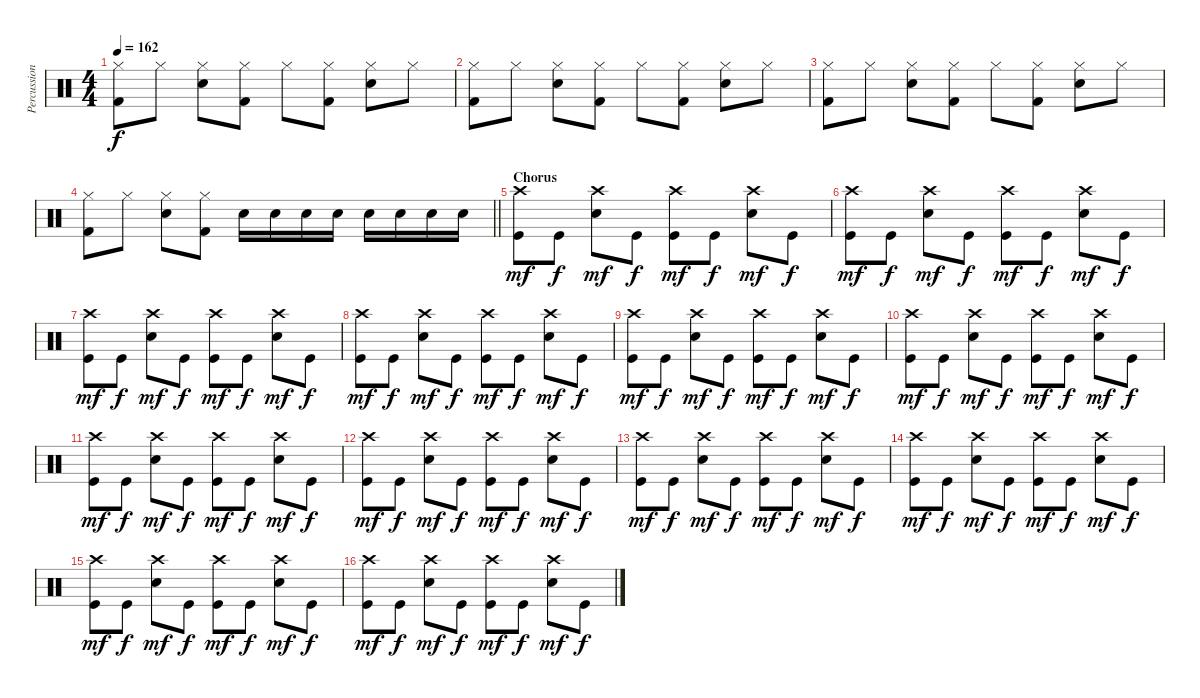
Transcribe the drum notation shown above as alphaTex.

\track ("Percussions" "Percussion") {instrument percussion}
\staff {score}
\articulation defaults
\ts (4 4)
\tempo 162
\clef neutral
\ks c
("Hi-Hat (closed)" "Kick (hit) 2").8{dy f} "Hi-Hat (closed)".8 ("Snare (hit) 2" "Hi-Hat (closed)").8 ("Hi-Hat (closed)" "Kick (hit) 2").8 "Hi-Hat (closed)".8 ("Hi-Hat (closed)" "Kick (hit) 2").8 ("Snare (hit) 2" "Hi-Hat (closed)").8 "Hi-Hat (closed)".8 |
("Hi-Hat (closed)" "Kick (hit) 2").8 "Hi-Hat (closed)".8 ("Snare (hit) 2" "Hi-Hat (closed)").8 ("Hi-Hat (closed)" "Kick (hit) 2").8 "Hi-Hat (closed)".8 ("Hi-Hat (closed)" "Kick (hit) 2").8 ("Snare (hit) 2" "Hi-Hat (closed)").8 "Hi-Hat (closed)".8 |
("Hi-Hat (closed)" "Kick (hit) 2").8 "Hi-Hat (closed)".8 ("Snare (hit) 2" "Hi-Hat (closed)").8 ("Hi-Hat (closed)" "Kick (hit) 2").8 "Hi-Hat (closed)".8 ("Hi-Hat (closed)" "Kick (hit) 2").8 ("Snare (hit) 2" "Hi-Hat (closed)").8 "Hi-Hat (closed)".8 |
\barLineRight lightlight
("Hi-Hat (closed)" "Kick (hit) 2").8 "Hi-Hat (closed)".8 ("Snare (hit) 2" "Hi-Hat (closed)").8 ("Hi-Hat (closed)" "Kick (hit) 2").8 "Electric Snare (hit)".16 "Electric Snare (hit)".16 "Electric Snare (hit)".16 "Electric Snare (hit)".16 "Snare (hit) 2".16 "Snare (hit) 2".16 "Snare (hit) 2".16 "Snare (hit) 2".16 |
\section ("" "Chorus")
("Crash high (hit)" "Kick (hit)").8{dy mf} "Kick (hit)".8{dy f} ("Crash high (hit)" "Electric Snare (hit)").8{dy mf} "Kick (hit)".8{dy f} ("Crash high (hit)" "Kick (hit)").8{dy mf} "Kick (hit)".8{dy f} ("Crash high (hit)" "Electric Snare (hit)").8{dy mf} "Kick (hit)".8{dy f} |
("Crash high (hit)" "Kick (hit)").8{dy mf} "Kick (hit)".8{dy f} ("Crash high (hit)" "Electric Snare (hit)").8{dy mf} "Kick (hit)".8{dy f} ("Crash high (hit)" "Kick (hit)").8{dy mf} "Kick (hit)".8{dy f} ("Crash high (hit)" "Electric Snare (hit)").8{dy mf} "Kick (hit)".8{dy f} |
("Crash high (hit)" "Kick (hit)").8{dy mf} "Kick (hit)".8{dy f} ("Crash high (hit)" "Electric Snare (hit)").8{dy mf} "Kick (hit)".8{dy f} ("Crash high (hit)" "Kick (hit)").8{dy mf} "Kick (hit)".8{dy f} ("Crash high (hit)" "Electric Snare (hit)").8{dy mf} "Kick (hit)".8{dy f} |
("Crash high (hit)" "Kick (hit)").8{dy mf} "Kick (hit)".8{dy f} ("Crash high (hit)" "Electric Snare (hit)").8{dy mf} "Kick (hit)".8{dy f} ("Crash high (hit)" "Kick (hit)").8{dy mf} "Kick (hit)".8{dy f} ("Crash high (hit)" "Electric Snare (hit)").8{dy mf} "Kick (hit)".8{dy f} |
("Crash high (hit)" "Kick (hit)").8{dy mf} "Kick (hit)".8{dy f} ("Crash high (hit)" "Electric Snare (hit)").8{dy mf} "Kick (hit)".8{dy f} ("Crash high (hit)" "Kick (hit)").8{dy mf} "Kick (hit)".8{dy f} ("Crash high (hit)" "Electric Snare (hit)").8{dy mf} "Kick (hit)".8{dy f} |
("Crash high (hit)" "Kick (hit)").8{dy mf} "Kick (hit)".8{dy f} ("Crash high (hit)" "Electric Snare (hit)").8{dy mf} "Kick (hit)".8{dy f} ("Crash high (hit)" "Kick (hit)").8{dy mf} "Kick (hit)".8{dy f} ("Crash high (hit)" "Electric Snare (hit)").8{dy mf} "Kick (hit)".8{dy f} |
("Crash high (hit)" "Kick (hit)").8{dy mf} "Kick (hit)".8{dy f} ("Crash high (hit)" "Electric Snare (hit)").8{dy mf} "Kick (hit)".8{dy f} ("Crash high (hit)" "Kick (hit)").8{dy mf} "Kick (hit)".8{dy f} ("Crash high (hit)" "Electric Snare (hit)").8{dy mf} "Kick (hit)".8{dy f} |
("Crash high (hit)" "Kick (hit)").8{dy mf} "Kick (hit)".8{dy f} ("Crash high (hit)" "Electric Snare (hit)").8{dy mf} "Kick (hit)".8{dy f} ("Crash high (hit)" "Kick (hit)").8{dy mf} "Kick (hit)".8{dy f} ("Crash high (hit)" "Electric Snare (hit)").8{dy mf} "Kick (hit)".8{dy f} |
("Crash high (hit)" "Kick (hit)").8{dy mf} "Kick (hit)".8{dy f} ("Crash high (hit)" "Electric Snare (hit)").8{dy mf} "Kick (hit)".8{dy f} ("Crash high (hit)" "Kick (hit)").8{dy mf} "Kick (hit)".8{dy f} ("Crash high (hit)" "Electric Snare (hit)").8{dy mf} "Kick (hit)".8{dy f} |
("Crash high (hit)" "Kick (hit)").8{dy mf} "Kick (hit)".8{dy f} ("Crash high (hit)" "Electric Snare (hit)").8{dy mf} "Kick (hit)".8{dy f} ("Crash high (hit)" "Kick (hit)").8{dy mf} "Kick (hit)".8{dy f} ("Crash high (hit)" "Electric Snare (hit)").8{dy mf} "Kick (hit)".8{dy f} |
("Crash high (hit)" "Kick (hit)").8{dy mf} "Kick (hit)".8{dy f} ("Crash high (hit)" "Electric Snare (hit)").8{dy mf} "Kick (hit)".8{dy f} ("Crash high (hit)" "Kick (hit)").8{dy mf} "Kick (hit)".8{dy f} ("Crash high (hit)" "Electric Snare (hit)").8{dy mf} "Kick (hit)".8{dy f} |
("Crash high (hit)" "Kick (hit)").8{dy mf} "Kick (hit)".8{dy f} ("Crash high (hit)" "Electric Snare (hit)").8{dy mf} "Kick (hit)".8{dy f} ("Crash high (hit)" "Kick (hit)").8{dy mf} "Kick (hit)".8{dy f} ("Crash high (hit)" "Electric Snare (hit)").8{dy mf} "Kick (hit)".8{dy f}
